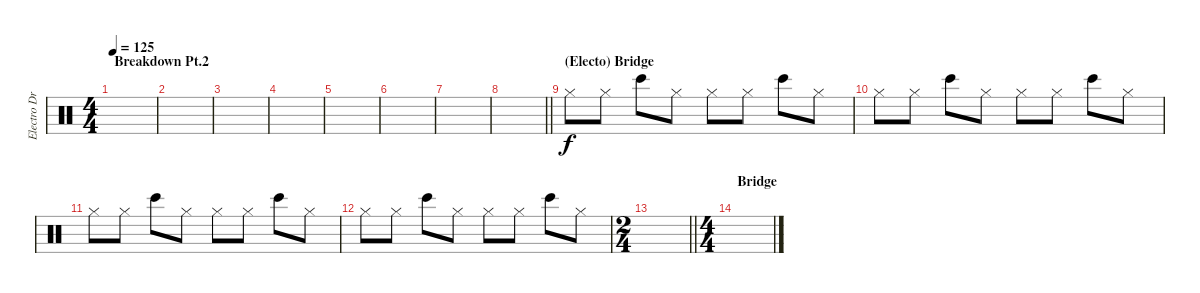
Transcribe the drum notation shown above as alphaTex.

\track ("Electro Drums" "Electro Dr") {instrument percussion}
\staff {score}
\articulation defaults
\ts (4 4)
\section ("" "Breakdown Pt.2")
\tempo 125
\clef neutral
\ks c
|
|
|
|
|
|
|
\barLineRight lightlight
|
\section ("" "(Electo) Bridge")
"Hi-Hat (closed)".8 "Hi-Hat (closed)".8 "Bongo High (hit)".8 "Hi-Hat (closed)".8 "Hi-Hat (closed)".8 "Hi-Hat (closed)".8 "Bongo High (hit)".8 "Hi-Hat (closed)".8 |
"Hi-Hat (closed)".8 "Hi-Hat (closed)".8 "Bongo High (hit)".8 "Hi-Hat (closed)".8 "Hi-Hat (closed)".8 "Hi-Hat (closed)".8 "Bongo High (hit)".8 "Hi-Hat (closed)".8 |
"Hi-Hat (closed)".8 "Hi-Hat (closed)".8 "Bongo High (hit)".8 "Hi-Hat (closed)".8 "Hi-Hat (closed)".8 "Hi-Hat (closed)".8 "Bongo High (hit)".8 "Hi-Hat (closed)".8 |
"Hi-Hat (closed)".8 "Hi-Hat (closed)".8 "Bongo High (hit)".8 "Hi-Hat (closed)".8 "Hi-Hat (closed)".8 "Hi-Hat (closed)".8 "Bongo High (hit)".8 "Hi-Hat (closed)".8 |
\ts (2 4)
\barLineRight lightlight
|
\ts (4 4)
\section ("" "Bridge")
